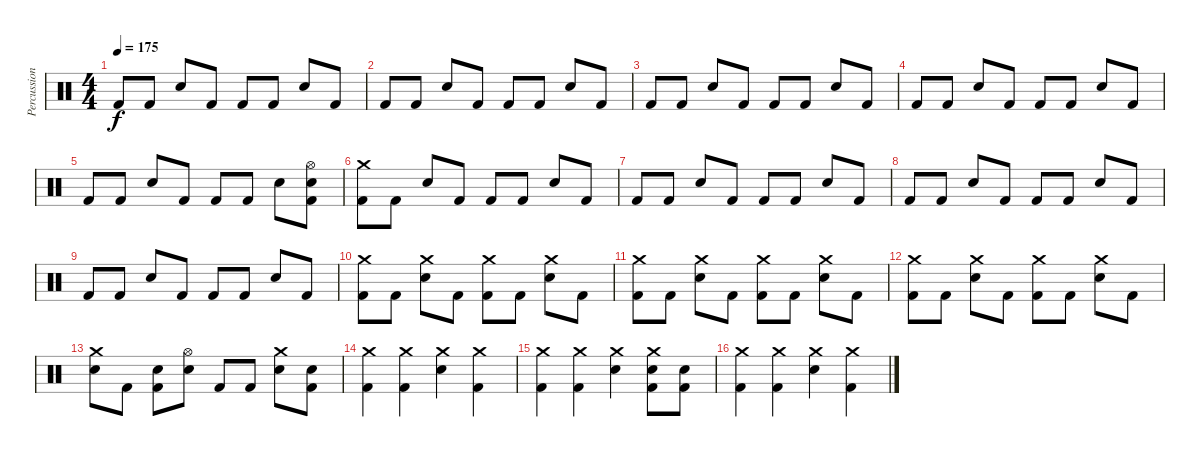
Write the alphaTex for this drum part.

\track ("Percussions" "Percussion") {instrument percussion}
\staff {score}
\articulation defaults
\ts (4 4)
\tempo 175
\clef neutral
\ks c "Kick (hit) 2".8{dy f} "Kick (hit) 2".8 "Snare (hit) 2".8 "Kick (hit) 2".8 "Kick (hit) 2".8 "Kick (hit) 2".8 "Snare (hit) 2".8 "Kick (hit) 2".8
|
"Kick (hit) 2".8 "Kick (hit) 2".8 "Snare (hit) 2".8 "Kick (hit) 2".8 "Kick (hit) 2".8 "Kick (hit) 2".8 "Snare (hit) 2".8 "Kick (hit) 2".8 |
"Kick (hit) 2".8 "Kick (hit) 2".8 "Snare (hit) 2".8 "Kick (hit) 2".8 "Kick (hit) 2".8 "Kick (hit) 2".8 "Snare (hit) 2".8 "Kick (hit) 2".8 |
"Kick (hit) 2".8 "Kick (hit) 2".8 "Snare (hit) 2".8 "Kick (hit) 2".8 "Kick (hit) 2".8 "Kick (hit) 2".8 "Snare (hit) 2".8 "Kick (hit) 2".8 |
"Kick (hit) 2".8 "Kick (hit) 2".8 "Snare (hit) 2".8 "Kick (hit) 2".8 "Kick (hit) 2".8 "Kick (hit) 2".8 "Snare (hit) 2".8 ("Hi-Hat (open)" "Snare (hit) 2" "Kick (hit) 2").8 |
("Crash medium (hit)" "Kick (hit) 2").8 "Kick (hit) 2".8 "Snare (hit) 2".8 "Kick (hit) 2".8 "Kick (hit) 2".8 "Kick (hit) 2".8 "Snare (hit) 2".8 "Kick (hit) 2".8 |
"Kick (hit) 2".8 "Kick (hit) 2".8 "Snare (hit) 2".8 "Kick (hit) 2".8 "Kick (hit) 2".8 "Kick (hit) 2".8 "Snare (hit) 2".8 "Kick (hit) 2".8 |
"Kick (hit) 2".8 "Kick (hit) 2".8 "Snare (hit) 2".8 "Kick (hit) 2".8 "Kick (hit) 2".8 "Kick (hit) 2".8 "Snare (hit) 2".8 "Kick (hit) 2".8 |
"Kick (hit) 2".8 "Kick (hit) 2".8 "Snare (hit) 2".8 "Kick (hit) 2".8 "Kick (hit) 2".8 "Kick (hit) 2".8 "Snare (hit) 2".8 "Kick (hit) 2".8 |
("Crash medium (hit)" "Kick (hit) 2").8 "Kick (hit) 2".8 ("Crash medium (hit)" "Snare (hit) 2").8 "Kick (hit) 2".8 ("Crash medium (hit)" "Kick (hit) 2").8 "Kick (hit) 2".8 ("Crash medium (hit)" "Snare (hit) 2").8 "Kick (hit) 2".8 |
("Crash medium (hit)" "Kick (hit) 2").8 "Kick (hit) 2".8 ("Crash medium (hit)" "Snare (hit) 2").8 "Kick (hit) 2".8 ("Crash medium (hit)" "Kick (hit) 2").8 "Kick (hit) 2".8 ("Crash medium (hit)" "Snare (hit) 2").8 "Kick (hit) 2".8 |
("Crash medium (hit)" "Kick (hit) 2").8 "Kick (hit) 2".8 ("Crash medium (hit)" "Snare (hit) 2").8 "Kick (hit) 2".8 ("Crash medium (hit)" "Kick (hit) 2").8 "Kick (hit) 2".8 ("Crash medium (hit)" "Snare (hit) 2").8 "Kick (hit) 2".8 |
("Crash medium (hit)" "Snare (hit) 2").8 "Kick (hit) 2".8 ("Snare (hit) 2" "Kick (hit) 2").8 ("Hi-Hat (open)" "Snare (hit) 2").8 "Kick (hit) 2".8 "Kick (hit) 2".8 ("Crash medium (hit)" "Snare (hit) 2").8 ("Snare (hit) 2" "Kick (hit) 2").8 |
("Crash medium (hit)" "Kick (hit) 2").4 ("Crash medium (hit)" "Kick (hit) 2").4 ("Crash medium (hit)" "Snare (hit) 2").4 ("Crash medium (hit)" "Kick (hit) 2").4 |
("Crash medium (hit)" "Kick (hit) 2").4 ("Crash medium (hit)" "Kick (hit) 2").4 ("Crash medium (hit)" "Snare (hit) 2").4 ("Crash medium (hit)" "Snare (hit) 2" "Kick (hit) 2").8 ("Snare (hit) 2" "Kick (hit) 2").8 |
("Crash medium (hit)" "Kick (hit) 2").4 ("Crash medium (hit)" "Kick (hit) 2").4 ("Crash medium (hit)" "Snare (hit) 2").4 ("Crash medium (hit)" "Kick (hit) 2").4
